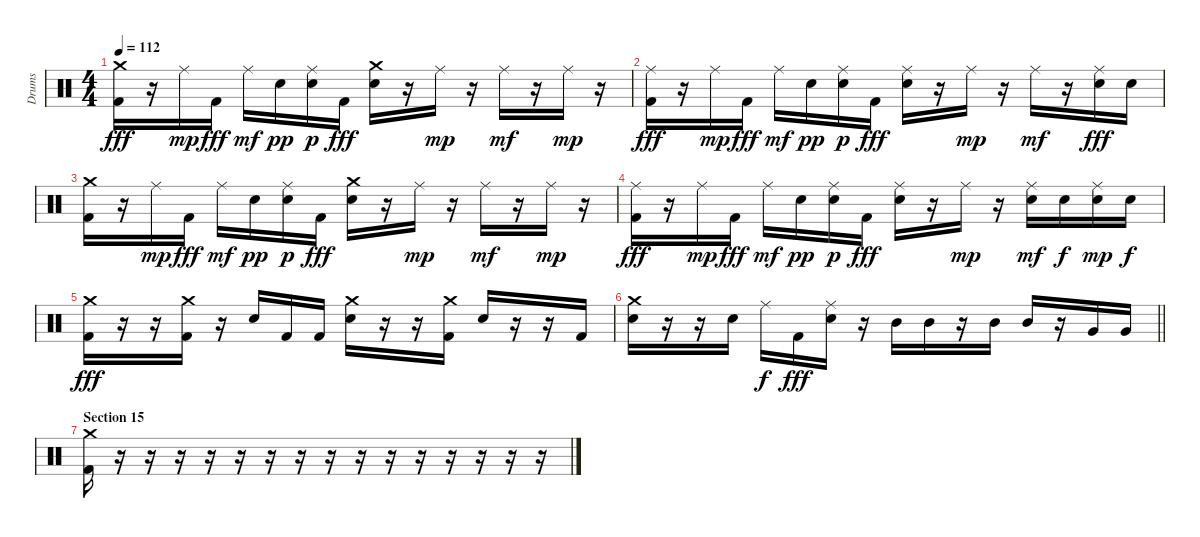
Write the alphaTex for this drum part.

\track ("Drums" "Drums") {instrument percussion}
\staff {score}
\articulation defaults
\ts (4 4)
\tempo 112
\clef neutral
\ks c
("Crash medium (hit)" "Kick (hit) 2").16{dy fff} r.16 "Ride (middle)".16{dy mp} "Kick (hit) 2".16{dy fff} "Ride (middle)".16{dy mf} "Electric Snare (hit)".16{dy pp} ("Ride (middle)" "Electric Snare (hit)").16{dy p} "Kick (hit) 2".16{dy fff} ("Crash medium (hit)" "Electric Snare (hit)").16 r.16 "Ride (middle)".16{dy mp} r.16 "Ride (middle)".16{dy mf} r.16 "Ride (middle)".16{dy mp} r.16 |
("Ride (middle)" "Kick (hit) 2").16{dy fff} r.16 "Ride (middle)".16{dy mp} "Kick (hit) 2".16{dy fff} "Ride (middle)".16{dy mf} "Electric Snare (hit)".16{dy pp} ("Ride (middle)" "Electric Snare (hit)").16{dy p} "Kick (hit) 2".16{dy fff} ("Ride (middle)" "Electric Snare (hit)").16 r.16 "Ride (middle)".16{dy mp} r.16 "Ride (middle)".16{dy mf} r.16 ("Ride (middle)" "Electric Snare (hit)").16{dy fff} "Electric Snare (hit)".16 |
("Crash medium (hit)" "Kick (hit) 2").16 r.16 "Ride (middle)".16{dy mp} "Kick (hit) 2".16{dy fff} "Ride (middle)".16{dy mf} "Electric Snare (hit)".16{dy pp} ("Ride (middle)" "Electric Snare (hit)").16{dy p} "Kick (hit) 2".16{dy fff} ("Crash medium (hit)" "Electric Snare (hit)").16 r.16 "Ride (middle)".16{dy mp} r.16 "Ride (middle)".16{dy mf} r.16 "Ride (middle)".16{dy mp} r.16 |
("Ride (middle)" "Kick (hit) 2").16{dy fff} r.16 "Ride (middle)".16{dy mp} "Kick (hit) 2".16{dy fff} "Ride (middle)".16{dy mf} "Electric Snare (hit)".16{dy pp} ("Ride (middle)" "Electric Snare (hit)").16{dy p} "Kick (hit) 2".16{dy fff} ("Ride (middle)" "Electric Snare (hit)").16 r.16 "Ride (middle)".16{dy mp} r.16 ("Ride (middle)" "Electric Snare (hit)").16{dy mf} "Electric Snare (hit)".16{dy f} ("Ride (middle)" "Electric Snare (hit)").16{dy mp} "Electric Snare (hit)".16{dy f} |
("Crash medium (hit)" "Kick (hit) 2").16{dy fff} r.16 r.16 ("Crash medium (hit)" "Kick (hit) 2").16 r.16 "Electric Snare (hit)".16 "Kick (hit) 2".16 "Kick (hit) 2".16 ("Crash medium (hit)" "Electric Snare (hit)").16 r.16 r.16 ("Crash medium (hit)" "Kick (hit) 2").16 "Electric Snare (hit)".16 r.16 r.16 "Kick (hit) 2".16 |
\barLineRight lightlight
("Crash medium (hit)" "Electric Snare (hit)").16 r.16 r.16 "Electric Snare (hit)".16 "Ride (middle)".16{dy f} "Kick (hit) 2".16{dy fff} ("Ride (middle)" "Electric Snare (hit)").16 r.16 "Mid Tom (hit)".16 "Mid Tom (hit)".16 r.16 "Mid Tom (hit)".16 "Mid Tom (hit)".16 r.16 "Very Low Tom (hit)".16 "Very Low Tom (hit)".16 |
\section ("" "Section 15")
("Crash medium (hit)" "Kick (hit) 2").16 r.16 r.16 r.16 r.16 r.16 r.16 r.16 r.16 r.16 r.16 r.16 r.16 r.16 r.16 r.16
